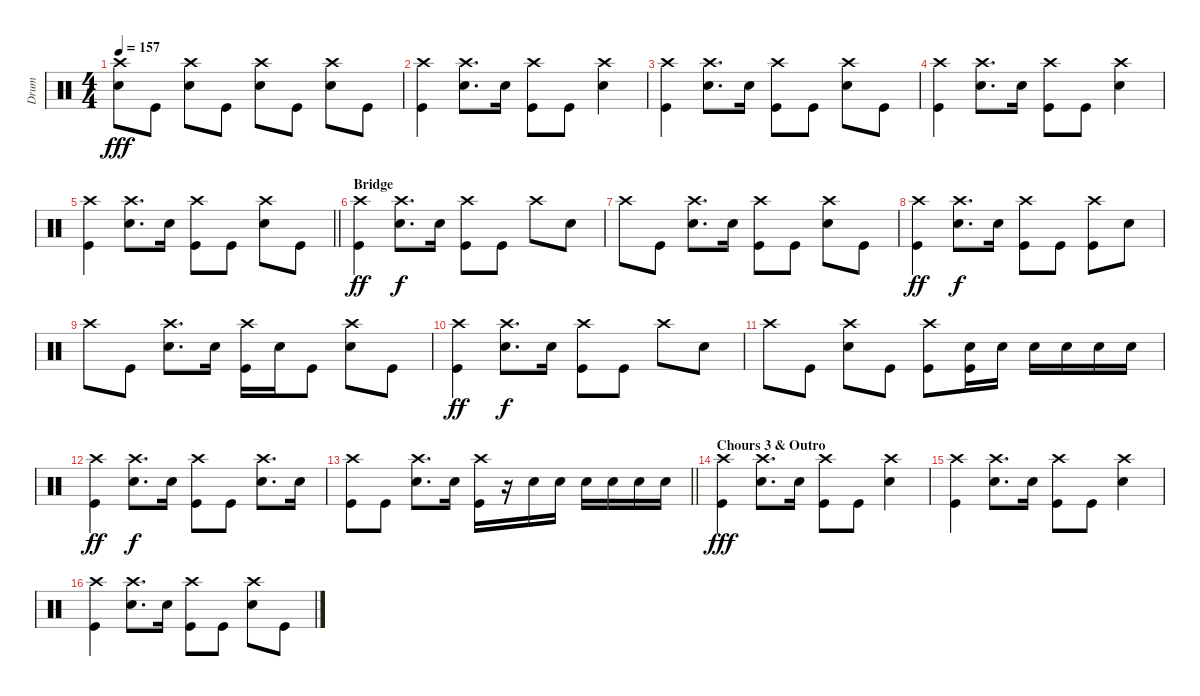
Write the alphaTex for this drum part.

\track ("Drum" "Drum") {instrument percussion}
\staff {score}
\articulation defaults
\ts (4 4)
\tempo 157
\clef neutral
\ks c
("Crash high (hit)" "Snare (hit) 2").8{dy fff} "Kick (hit)".8 ("Crash high (hit)" "Snare (hit) 2").8 "Kick (hit)".8 ("Crash high (hit)" "Snare (hit) 2").8 "Kick (hit)".8 ("Crash high (hit)" "Snare (hit) 2").8 "Kick (hit)".8 |
("Crash high (hit)" "Kick (hit)").4 ("Crash high (hit)" "Snare (hit) 2").8{d} "Snare (hit) 2".16 ("Crash high (hit)" "Kick (hit)").8 "Kick (hit)".8 ("Crash high (hit)" "Snare (hit) 2").4 |
("Crash high (hit)" "Kick (hit)").4 ("Crash high (hit)" "Snare (hit) 2").8{d} "Snare (hit) 2".16 ("Crash high (hit)" "Kick (hit)").8 "Kick (hit)".8 ("Crash high (hit)" "Snare (hit) 2").8 "Kick (hit)".8 |
("Crash high (hit)" "Kick (hit)").4 ("Crash high (hit)" "Snare (hit) 2").8{d} "Snare (hit) 2".16 ("Crash high (hit)" "Kick (hit)").8 "Kick (hit)".8 ("Crash high (hit)" "Snare (hit) 2").4 |
\barLineRight lightlight
("Crash high (hit)" "Kick (hit)").4 ("Crash high (hit)" "Snare (hit) 2").8{d} "Snare (hit) 2".16 ("Crash high (hit)" "Kick (hit)").8 "Kick (hit)".8 ("Crash high (hit)" "Snare (hit) 2").8 "Kick (hit)".8 |
\section ("" "Bridge")
("Crash high (hit)" "Kick (hit)").4{dy ff} ("Crash high (hit)" "Snare (hit) 2").8{d dy f} "Snare (hit) 2".16 ("Crash high (hit)" "Kick (hit)").8 "Kick (hit)".8 "Crash high (hit)".8 "Snare (hit) 2".8 |
"Crash high (hit)".8 "Kick (hit)".8 ("Crash high (hit)" "Snare (hit) 2").8{d} "Snare (hit) 2".16 ("Crash high (hit)" "Kick (hit)").8 "Kick (hit)".8 ("Crash high (hit)" "Snare (hit) 2").8 "Kick (hit)".8 |
("Crash high (hit)" "Kick (hit)").4{dy ff} ("Crash high (hit)" "Snare (hit) 2").8{d dy f} "Snare (hit) 2".16 ("Crash high (hit)" "Kick (hit)").8 "Kick (hit)".8 ("Crash high (hit)" "Kick (hit)").8 "Snare (hit) 2".8 |
"Crash high (hit)".8 "Kick (hit)".8 ("Crash high (hit)" "Snare (hit) 2").8{d} "Snare (hit) 2".16 ("Crash high (hit)" "Kick (hit)").16 "Snare (hit) 2".16 "Kick (hit)".8 ("Crash high (hit)" "Snare (hit) 2").8 "Kick (hit)".8 |
("Crash high (hit)" "Kick (hit)").4{dy ff} ("Crash high (hit)" "Snare (hit) 2").8{d dy f} "Snare (hit) 2".16 ("Crash high (hit)" "Kick (hit)").8 "Kick (hit)".8 "Crash high (hit)".8 "Snare (hit) 2".8 |
"Crash high (hit)".8 "Kick (hit)".8 ("Crash high (hit)" "Snare (hit) 2").8 "Kick (hit)".8 ("Crash high (hit)" "Kick (hit)").8 ("Snare (hit) 2" "Kick (hit)").16 "Snare (hit) 2".16 "Snare (hit) 2".16 "Snare (hit) 2".16 "Snare (hit) 2".16 "Snare (hit) 2".16 |
("Crash high (hit)" "Kick (hit)").4{dy ff} ("Crash high (hit)" "Snare (hit) 2").8{d dy f} "Snare (hit) 2".16 ("Crash high (hit)" "Kick (hit)").8 "Kick (hit)".8 ("Crash high (hit)" "Snare (hit) 2").8{d} "Snare (hit) 2".16 |
\barLineRight lightlight
("Crash high (hit)" "Kick (hit)").8 "Kick (hit)".8 ("Crash high (hit)" "Snare (hit) 2").8{d} "Snare (hit) 2".16 ("Crash high (hit)" "Kick (hit)").16 r.16 "Snare (hit) 2".16 "Snare (hit) 2".16 "Snare (hit) 2".16 "Snare (hit) 2".16 "Snare (hit) 2".16 "Snare (hit) 2".16 |
\section ("" "Chours 3 & Outro")
("Crash high (hit)" "Kick (hit)").4{dy fff} ("Crash high (hit)" "Snare (hit) 2").8{d} "Snare (hit) 2".16 ("Crash high (hit)" "Kick (hit)").8 "Kick (hit)".8 ("Crash high (hit)" "Snare (hit) 2").4 |
("Crash high (hit)" "Kick (hit)").4 ("Crash high (hit)" "Snare (hit) 2").8{d} "Snare (hit) 2".16 ("Crash high (hit)" "Kick (hit)").8 "Kick (hit)".8 ("Crash high (hit)" "Snare (hit) 2").4 |
("Crash high (hit)" "Kick (hit)").4 ("Crash high (hit)" "Snare (hit) 2").8{d} "Snare (hit) 2".16 ("Crash high (hit)" "Kick (hit)").8 "Kick (hit)".8 ("Crash high (hit)" "Snare (hit) 2").8 "Kick (hit)".8
